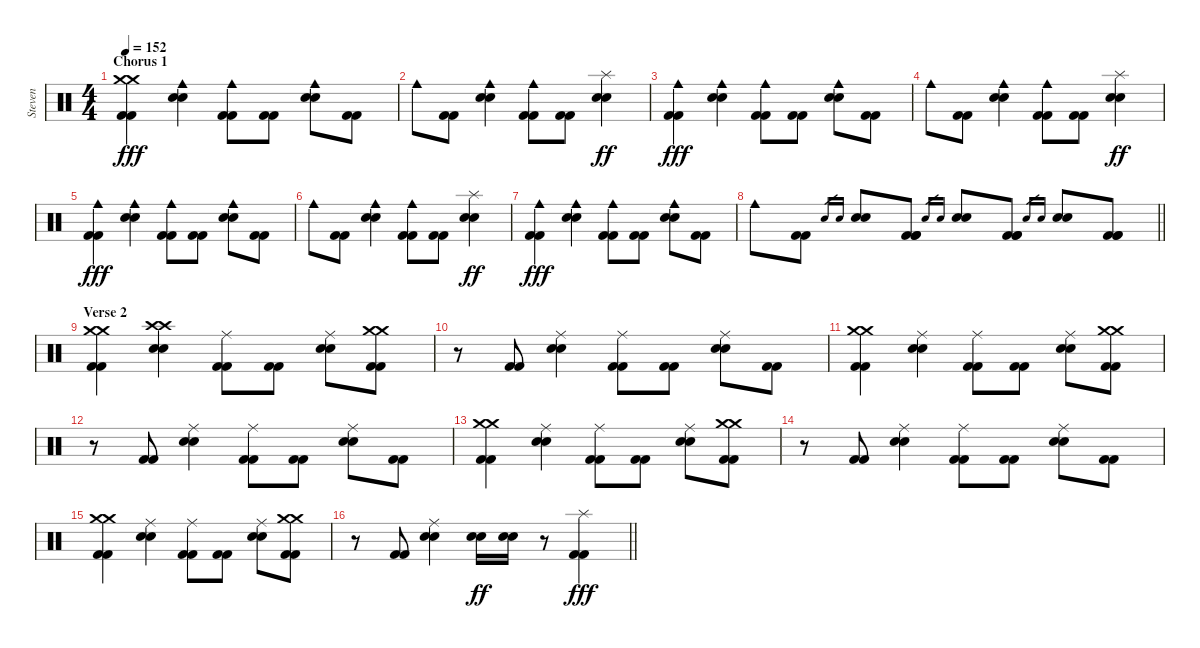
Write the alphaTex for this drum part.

\track ("Steven" "Steven") {instrument percussion}
\staff {score}
\articulation defaults
\ts (4 4)
\section ("" "Chorus 1")
\tempo 152
\clef neutral
\ks c
("Crash medium (hit)" "Crash medium (hit)" "Kick (hit) 2" "Kick (hit) 2").4{dy fff} ("Cowbell medium (hit)" "Electric Snare (hit)" "Electric Snare (hit)").4 ("Cowbell medium (hit)" "Kick (hit) 2" "Kick (hit) 2").8 ("Kick (hit) 2" "Kick (hit) 2").8 ("Cowbell medium (hit)" "Electric Snare (hit)" "Electric Snare (hit)").8 ("Kick (hit) 2" "Kick (hit) 2").8 |
"Cowbell medium (hit)".8 ("Kick (hit) 2" "Kick (hit) 2").8 ("Cowbell medium (hit)" "Electric Snare (hit)" "Electric Snare (hit)").4 ("Cowbell medium (hit)" "Kick (hit) 2" "Kick (hit) 2").8 ("Kick (hit) 2" "Kick (hit) 2").8 ("Splash (hit)" "Electric Snare (hit)" "Electric Snare (hit)").4{dy ff} |
("Cowbell medium (hit)" "Kick (hit) 2" "Kick (hit) 2").4{dy fff} ("Cowbell medium (hit)" "Electric Snare (hit)" "Electric Snare (hit)").4 ("Cowbell medium (hit)" "Kick (hit) 2" "Kick (hit) 2").8 ("Kick (hit) 2" "Kick (hit) 2").8 ("Cowbell medium (hit)" "Electric Snare (hit)" "Electric Snare (hit)").8 ("Kick (hit) 2" "Kick (hit) 2").8 |
"Cowbell medium (hit)".8 ("Kick (hit) 2" "Kick (hit) 2").8 ("Cowbell medium (hit)" "Electric Snare (hit)" "Electric Snare (hit)").4 ("Cowbell medium (hit)" "Kick (hit) 2" "Kick (hit) 2").8 ("Kick (hit) 2" "Kick (hit) 2").8 ("Splash (hit)" "Electric Snare (hit)" "Electric Snare (hit)").4{dy ff} |
("Cowbell medium (hit)" "Kick (hit) 2" "Kick (hit) 2").4{dy fff} ("Cowbell medium (hit)" "Electric Snare (hit)" "Electric Snare (hit)").4 ("Cowbell medium (hit)" "Kick (hit) 2" "Kick (hit) 2").8 ("Kick (hit) 2" "Kick (hit) 2").8 ("Cowbell medium (hit)" "Electric Snare (hit)" "Electric Snare (hit)").8 ("Kick (hit) 2" "Kick (hit) 2").8 |
"Cowbell medium (hit)".8 ("Kick (hit) 2" "Kick (hit) 2").8 ("Cowbell medium (hit)" "Electric Snare (hit)" "Electric Snare (hit)").4 ("Cowbell medium (hit)" "Kick (hit) 2" "Kick (hit) 2").8 ("Kick (hit) 2" "Kick (hit) 2").8 ("Splash (hit)" "Electric Snare (hit)" "Electric Snare (hit)").4{dy ff} |
("Cowbell medium (hit)" "Kick (hit) 2" "Kick (hit) 2").4{dy fff} ("Cowbell medium (hit)" "Electric Snare (hit)" "Electric Snare (hit)").4 ("Cowbell medium (hit)" "Kick (hit) 2" "Kick (hit) 2").8 ("Kick (hit) 2" "Kick (hit) 2").8 ("Cowbell medium (hit)" "Electric Snare (hit)" "Electric Snare (hit)").8 ("Kick (hit) 2" "Kick (hit) 2").8 |
\barLineRight lightlight "Cowbell medium (hit)".8
("Kick (hit) 2" "Kick (hit) 2").8 "Electric Snare (hit)".16{gr} "Electric Snare (hit)".16{gr} ("Electric Snare (hit)" "Electric Snare (hit)").8 ("Kick (hit) 2" "Kick (hit) 2" "Kick (hit) 2").8 "Electric Snare (hit)".16{gr} "Electric Snare (hit)".16{gr} ("Electric Snare (hit)" "Electric Snare (hit)").8 ("Kick (hit) 2" "Kick (hit) 2" "Kick (hit) 2").8 "Electric Snare (hit)".16{gr} "Electric Snare (hit)".16{gr} ("Electric Snare (hit)" "Electric Snare (hit)").8 ("Kick (hit) 2" "Kick (hit) 2" "Kick (hit) 2").8 |
\section ("" "Verse 2")
("Crash medium (hit)" "Crash medium (hit)" "Kick (hit) 2" "Kick (hit) 2").4 ("Crash high (hit)" "Crash high (hit)" "Electric Snare (hit)" "Electric Snare (hit)").4 ("Ride (middle)" "Kick (hit) 2" "Kick (hit) 2").8 ("Kick (hit) 2" "Kick (hit) 2").8 ("Ride (middle)" "Electric Snare (hit)" "Electric Snare (hit)").8 ("Crash medium (hit)" "Crash medium (hit)" "Kick (hit) 2" "Kick (hit) 2").8 |
r.8 ("Kick (hit) 2" "Kick (hit) 2").8 ("Ride (middle)" "Electric Snare (hit)" "Electric Snare (hit)").4 ("Ride (middle)" "Kick (hit) 2" "Kick (hit) 2").8 ("Kick (hit) 2" "Kick (hit) 2").8 ("Ride (middle)" "Electric Snare (hit)" "Electric Snare (hit)").8 ("Kick (hit) 2" "Kick (hit) 2").8 |
("Crash medium (hit)" "Crash medium (hit)" "Kick (hit) 2" "Kick (hit) 2").4 ("Ride (middle)" "Electric Snare (hit)" "Electric Snare (hit)").4 ("Ride (middle)" "Kick (hit) 2" "Kick (hit) 2").8 ("Kick (hit) 2" "Kick (hit) 2").8 ("Ride (middle)" "Electric Snare (hit)" "Electric Snare (hit)").8 ("Crash medium (hit)" "Crash medium (hit)" "Kick (hit) 2" "Kick (hit) 2").8 |
r.8 ("Kick (hit) 2" "Kick (hit) 2").8 ("Ride (middle)" "Electric Snare (hit)" "Electric Snare (hit)").4 ("Ride (middle)" "Kick (hit) 2" "Kick (hit) 2").8 ("Kick (hit) 2" "Kick (hit) 2").8 ("Ride (middle)" "Electric Snare (hit)" "Electric Snare (hit)").8 ("Kick (hit) 2" "Kick (hit) 2").8 |
("Crash medium (hit)" "Crash medium (hit)" "Kick (hit) 2" "Kick (hit) 2").4 ("Ride (middle)" "Electric Snare (hit)" "Electric Snare (hit)").4 ("Ride (middle)" "Kick (hit) 2" "Kick (hit) 2").8 ("Kick (hit) 2" "Kick (hit) 2").8 ("Ride (middle)" "Electric Snare (hit)" "Electric Snare (hit)").8 ("Crash medium (hit)" "Crash medium (hit)" "Kick (hit) 2" "Kick (hit) 2").8 |
r.8 ("Kick (hit) 2" "Kick (hit) 2").8 ("Ride (middle)" "Electric Snare (hit)" "Electric Snare (hit)").4 ("Ride (middle)" "Kick (hit) 2" "Kick (hit) 2").8 ("Kick (hit) 2" "Kick (hit) 2").8 ("Ride (middle)" "Electric Snare (hit)" "Electric Snare (hit)").8 ("Kick (hit) 2" "Kick (hit) 2").8 |
("Crash medium (hit)" "Crash medium (hit)" "Kick (hit) 2" "Kick (hit) 2").4 ("Ride (middle)" "Electric Snare (hit)" "Electric Snare (hit)").4 ("Ride (middle)" "Kick (hit) 2" "Kick (hit) 2").8 ("Kick (hit) 2" "Kick (hit) 2").8 ("Ride (middle)" "Electric Snare (hit)" "Electric Snare (hit)").8 ("Crash medium (hit)" "Crash medium (hit)" "Kick (hit) 2" "Kick (hit) 2").8 |
\barLineRight lightlight
r.8 ("Kick (hit) 2" "Kick (hit) 2").8 ("Ride (middle)" "Electric Snare (hit)" "Electric Snare (hit)").4 ("Electric Snare (hit)" "Electric Snare (hit)").16{dy ff} ("Electric Snare (hit)" "Electric Snare (hit)").16 r.8 ("Splash (hit)" "Kick (hit) 2" "Kick (hit) 2").4{dy fff}
